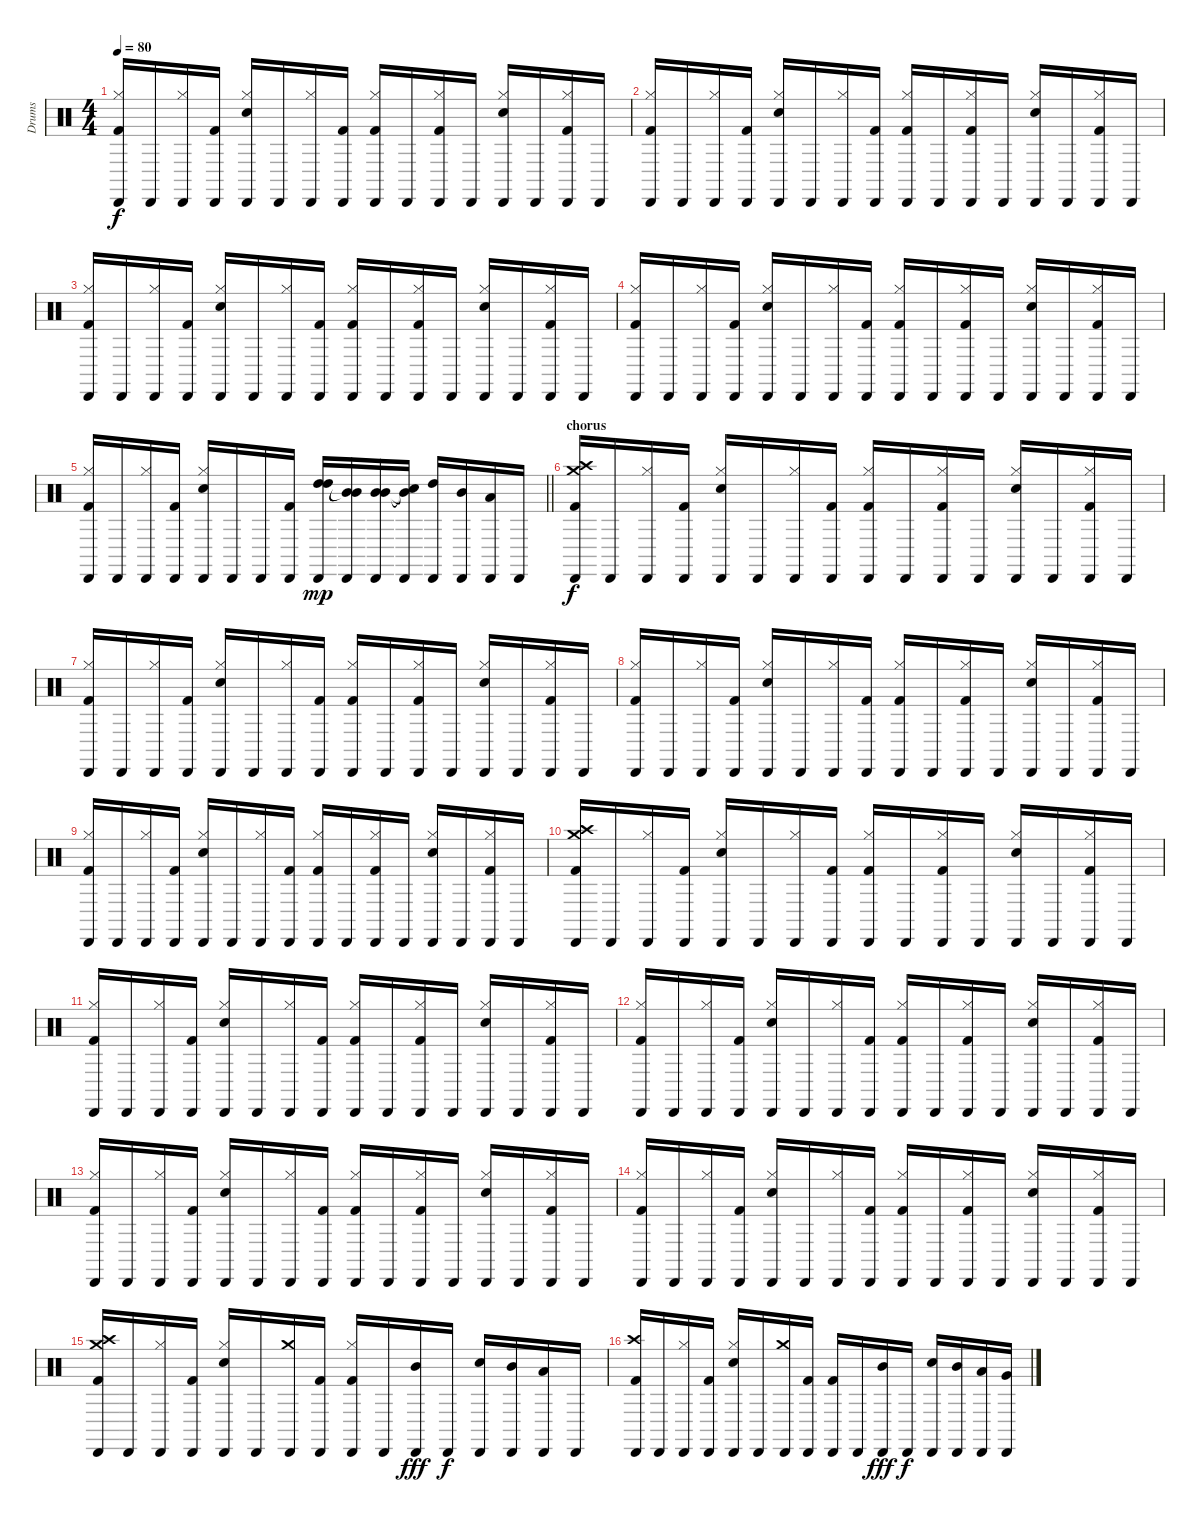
\track ("Drums" "Drums") {instrument percussion}
\staff {score}
\articulation defaults
\ts (4 4)
\tempo 80
\clef neutral
\ks c
("Cabasa (hit)" "Hi-Hat (closed)" "Kick (hit) 2").16{dy f} "Cabasa (hit)".16 ("Cabasa (hit)" "Hi-Hat (closed)").16 ("Cabasa (hit)" "Kick (hit) 2").16 ("Cabasa (hit)" "Hi-Hat (closed)" "Electric Snare (hit)").16 "Cabasa (hit)".16 ("Cabasa (hit)" "Hi-Hat (closed)").16 ("Cabasa (hit)" "Kick (hit) 2").16 ("Cabasa (hit)" "Hi-Hat (closed)" "Kick (hit) 2").16 "Cabasa (hit)".16 ("Cabasa (hit)" "Hi-Hat (closed)" "Kick (hit) 2").16 "Cabasa (hit)".16 ("Cabasa (hit)" "Hi-Hat (closed)" "Electric Snare (hit)").16 "Cabasa (hit)".16 ("Cabasa (hit)" "Hi-Hat (closed)" "Kick (hit) 2").16 "Cabasa (hit)".16 |
("Cabasa (hit)" "Hi-Hat (closed)" "Kick (hit) 2").16 "Cabasa (hit)".16 ("Cabasa (hit)" "Hi-Hat (closed)").16 ("Cabasa (hit)" "Kick (hit) 2").16 ("Cabasa (hit)" "Hi-Hat (closed)" "Electric Snare (hit)").16 "Cabasa (hit)".16 ("Cabasa (hit)" "Hi-Hat (closed)").16 ("Cabasa (hit)" "Kick (hit) 2").16 ("Cabasa (hit)" "Hi-Hat (closed)" "Kick (hit) 2").16 "Cabasa (hit)".16 ("Cabasa (hit)" "Hi-Hat (closed)" "Kick (hit) 2").16 "Cabasa (hit)".16 ("Cabasa (hit)" "Hi-Hat (closed)" "Electric Snare (hit)").16 "Cabasa (hit)".16 ("Cabasa (hit)" "Hi-Hat (closed)" "Kick (hit) 2").16 "Cabasa (hit)".16 |
("Cabasa (hit)" "Hi-Hat (closed)" "Kick (hit) 2").16 "Cabasa (hit)".16 ("Cabasa (hit)" "Hi-Hat (closed)").16 ("Cabasa (hit)" "Kick (hit) 2").16 ("Cabasa (hit)" "Hi-Hat (closed)" "Electric Snare (hit)").16 "Cabasa (hit)".16 ("Cabasa (hit)" "Hi-Hat (closed)").16 ("Cabasa (hit)" "Kick (hit) 2").16 ("Cabasa (hit)" "Hi-Hat (closed)" "Kick (hit) 2").16 "Cabasa (hit)".16 ("Cabasa (hit)" "Hi-Hat (closed)" "Kick (hit) 2").16 "Cabasa (hit)".16 ("Cabasa (hit)" "Hi-Hat (closed)" "Electric Snare (hit)").16 "Cabasa (hit)".16 ("Cabasa (hit)" "Hi-Hat (closed)" "Kick (hit) 2").16 "Cabasa (hit)".16 |
("Cabasa (hit)" "Hi-Hat (closed)" "Kick (hit) 2").16 "Cabasa (hit)".16 ("Cabasa (hit)" "Hi-Hat (closed)").16 ("Cabasa (hit)" "Kick (hit) 2").16 ("Cabasa (hit)" "Hi-Hat (closed)" "Electric Snare (hit)").16 "Cabasa (hit)".16 ("Cabasa (hit)" "Hi-Hat (closed)").16 ("Cabasa (hit)" "Kick (hit) 2").16 ("Cabasa (hit)" "Hi-Hat (closed)" "Kick (hit) 2").16 "Cabasa (hit)".16 ("Cabasa (hit)" "Hi-Hat (closed)" "Kick (hit) 2").16 "Cabasa (hit)".16 ("Cabasa (hit)" "Hi-Hat (closed)" "Electric Snare (hit)").16 "Cabasa (hit)".16 ("Cabasa (hit)" "Hi-Hat (closed)" "Kick (hit) 2").16 "Cabasa (hit)".16 |
\barLineRight lightlight
("Cabasa (hit)" "Kick (hit) 2" "Hi-Hat (closed)").16 "Cabasa (hit)".16 ("Cabasa (hit)" "Hi-Hat (closed)").16 ("Cabasa (hit)" "Kick (hit) 2").16 ("Cabasa (hit)" "Electric Snare (hit)" "Hi-Hat (closed)").16 "Cabasa (hit)".16 "Cabasa (hit)".16 ("Cabasa (hit)" "Kick (hit) 2").16 ("High Tom (hit)" "High Tom (hit)" "Cabasa (hit)").16{dy mp} ("Mid Tom (hit)"{t} "Mid Tom (hit)"{t} "Cabasa (hit)").16 ("Mid Tom (hit)" "Mid Tom (hit)" "Cabasa (hit)").16 ("Mid Tom (hit)"{t} "Snare (hit)"{t} "Cabasa (hit)").16 ("High Tom (hit)" "Cabasa (hit)").16 ("Mid Tom (hit)" "Cabasa (hit)").16 ("Low Tom (hit)" "Cabasa (hit)").16 "Cabasa (hit)".16 |
\section ("" "chorus")
("Cabasa (hit)" "Crash high (hit)" "Kick (hit) 2" "Crash medium (hit)").16{dy f} "Cabasa (hit)".16 ("Cabasa (hit)" "Hi-Hat (closed)").16 ("Cabasa (hit)" "Kick (hit) 2").16 ("Cabasa (hit)" "Hi-Hat (closed)" "Electric Snare (hit)").16 "Cabasa (hit)".16 ("Cabasa (hit)" "Hi-Hat (closed)").16 ("Cabasa (hit)" "Kick (hit) 2").16 ("Cabasa (hit)" "Hi-Hat (closed)" "Kick (hit) 2").16 "Cabasa (hit)".16 ("Cabasa (hit)" "Hi-Hat (closed)" "Kick (hit) 2").16 "Cabasa (hit)".16 ("Cabasa (hit)" "Hi-Hat (closed)" "Electric Snare (hit)").16 "Cabasa (hit)".16 ("Cabasa (hit)" "Hi-Hat (closed)" "Kick (hit) 2").16 "Cabasa (hit)".16 |
("Cabasa (hit)" "Hi-Hat (closed)" "Kick (hit) 2").16 "Cabasa (hit)".16 ("Cabasa (hit)" "Hi-Hat (closed)").16 ("Cabasa (hit)" "Kick (hit) 2").16 ("Cabasa (hit)" "Hi-Hat (closed)" "Electric Snare (hit)").16 "Cabasa (hit)".16 ("Cabasa (hit)" "Hi-Hat (closed)").16 ("Cabasa (hit)" "Kick (hit) 2").16 ("Cabasa (hit)" "Hi-Hat (closed)" "Kick (hit) 2").16 "Cabasa (hit)".16 ("Cabasa (hit)" "Hi-Hat (closed)" "Kick (hit) 2").16 "Cabasa (hit)".16 ("Cabasa (hit)" "Hi-Hat (closed)" "Electric Snare (hit)").16 "Cabasa (hit)".16 ("Cabasa (hit)" "Hi-Hat (closed)" "Kick (hit) 2").16 "Cabasa (hit)".16 |
("Cabasa (hit)" "Hi-Hat (closed)" "Kick (hit) 2").16 "Cabasa (hit)".16 ("Cabasa (hit)" "Hi-Hat (closed)").16 ("Cabasa (hit)" "Kick (hit) 2").16 ("Cabasa (hit)" "Hi-Hat (closed)" "Electric Snare (hit)").16 "Cabasa (hit)".16 ("Cabasa (hit)" "Hi-Hat (closed)").16 ("Cabasa (hit)" "Kick (hit) 2").16 ("Cabasa (hit)" "Hi-Hat (closed)" "Kick (hit) 2").16 "Cabasa (hit)".16 ("Cabasa (hit)" "Hi-Hat (closed)" "Kick (hit) 2").16 "Cabasa (hit)".16 ("Cabasa (hit)" "Hi-Hat (closed)" "Electric Snare (hit)").16 "Cabasa (hit)".16 ("Cabasa (hit)" "Hi-Hat (closed)" "Kick (hit) 2").16 "Cabasa (hit)".16 |
("Cabasa (hit)" "Hi-Hat (closed)" "Kick (hit) 2").16 "Cabasa (hit)".16 ("Cabasa (hit)" "Hi-Hat (closed)").16 ("Cabasa (hit)" "Kick (hit) 2").16 ("Cabasa (hit)" "Hi-Hat (closed)" "Electric Snare (hit)").16 "Cabasa (hit)".16 ("Cabasa (hit)" "Hi-Hat (closed)").16 ("Cabasa (hit)" "Kick (hit) 2").16 ("Cabasa (hit)" "Hi-Hat (closed)" "Kick (hit) 2").16 "Cabasa (hit)".16 ("Cabasa (hit)" "Hi-Hat (closed)" "Kick (hit) 2").16 "Cabasa (hit)".16 ("Cabasa (hit)" "Hi-Hat (closed)" "Electric Snare (hit)").16 "Cabasa (hit)".16 ("Cabasa (hit)" "Hi-Hat (closed)" "Kick (hit) 2").16 "Cabasa (hit)".16 |
("Cabasa (hit)" "Crash medium (hit)" "Kick (hit) 2" "Crash high (hit)").16 "Cabasa (hit)".16 ("Cabasa (hit)" "Hi-Hat (closed)").16 ("Cabasa (hit)" "Kick (hit) 2").16 ("Cabasa (hit)" "Hi-Hat (closed)" "Electric Snare (hit)").16 "Cabasa (hit)".16 ("Cabasa (hit)" "Hi-Hat (closed)").16 ("Cabasa (hit)" "Kick (hit) 2").16 ("Cabasa (hit)" "Hi-Hat (closed)" "Kick (hit) 2").16 "Cabasa (hit)".16 ("Cabasa (hit)" "Hi-Hat (closed)" "Kick (hit) 2").16 "Cabasa (hit)".16 ("Cabasa (hit)" "Hi-Hat (closed)" "Electric Snare (hit)").16 "Cabasa (hit)".16 ("Cabasa (hit)" "Hi-Hat (closed)" "Kick (hit) 2").16 "Cabasa (hit)".16 |
("Cabasa (hit)" "Hi-Hat (closed)" "Kick (hit) 2").16 "Cabasa (hit)".16 ("Cabasa (hit)" "Hi-Hat (closed)").16 ("Cabasa (hit)" "Kick (hit) 2").16 ("Cabasa (hit)" "Hi-Hat (closed)" "Electric Snare (hit)").16 "Cabasa (hit)".16 ("Cabasa (hit)" "Hi-Hat (closed)").16 ("Cabasa (hit)" "Kick (hit) 2").16 ("Cabasa (hit)" "Hi-Hat (closed)" "Kick (hit) 2").16 "Cabasa (hit)".16 ("Cabasa (hit)" "Hi-Hat (closed)" "Kick (hit) 2").16 "Cabasa (hit)".16 ("Cabasa (hit)" "Hi-Hat (closed)" "Electric Snare (hit)").16 "Cabasa (hit)".16 ("Cabasa (hit)" "Hi-Hat (closed)" "Kick (hit) 2").16 "Cabasa (hit)".16 |
("Cabasa (hit)" "Hi-Hat (closed)" "Kick (hit) 2").16 "Cabasa (hit)".16 ("Cabasa (hit)" "Hi-Hat (closed)").16 ("Cabasa (hit)" "Kick (hit) 2").16 ("Cabasa (hit)" "Hi-Hat (closed)" "Electric Snare (hit)").16 "Cabasa (hit)".16 ("Cabasa (hit)" "Hi-Hat (closed)").16 ("Cabasa (hit)" "Kick (hit) 2").16 ("Cabasa (hit)" "Hi-Hat (closed)" "Kick (hit) 2").16 "Cabasa (hit)".16 ("Cabasa (hit)" "Hi-Hat (closed)" "Kick (hit) 2").16 "Cabasa (hit)".16 ("Cabasa (hit)" "Hi-Hat (closed)" "Electric Snare (hit)").16 "Cabasa (hit)".16 ("Cabasa (hit)" "Hi-Hat (closed)" "Kick (hit) 2").16 "Cabasa (hit)".16 |
("Cabasa (hit)" "Hi-Hat (closed)" "Kick (hit) 2").16 "Cabasa (hit)".16 ("Cabasa (hit)" "Hi-Hat (closed)").16 ("Cabasa (hit)" "Kick (hit) 2").16 ("Cabasa (hit)" "Hi-Hat (closed)" "Electric Snare (hit)").16 "Cabasa (hit)".16 ("Cabasa (hit)" "Hi-Hat (closed)").16 ("Cabasa (hit)" "Kick (hit) 2").16 ("Cabasa (hit)" "Hi-Hat (closed)" "Kick (hit) 2").16 "Cabasa (hit)".16 ("Cabasa (hit)" "Hi-Hat (closed)" "Kick (hit) 2").16 "Cabasa (hit)".16 ("Cabasa (hit)" "Hi-Hat (closed)" "Electric Snare (hit)").16 "Cabasa (hit)".16 ("Cabasa (hit)" "Hi-Hat (closed)" "Kick (hit) 2").16 "Cabasa (hit)".16 |
("Cabasa (hit)" "Hi-Hat (closed)" "Kick (hit) 2").16 "Cabasa (hit)".16 ("Cabasa (hit)" "Hi-Hat (closed)").16 ("Cabasa (hit)" "Kick (hit) 2").16 ("Cabasa (hit)" "Hi-Hat (closed)" "Electric Snare (hit)").16 "Cabasa (hit)".16 ("Cabasa (hit)" "Hi-Hat (closed)").16 ("Cabasa (hit)" "Kick (hit) 2").16 ("Cabasa (hit)" "Hi-Hat (closed)" "Kick (hit) 2").16 "Cabasa (hit)".16 ("Cabasa (hit)" "Hi-Hat (closed)" "Kick (hit) 2").16 "Cabasa (hit)".16 ("Cabasa (hit)" "Hi-Hat (closed)" "Electric Snare (hit)").16 "Cabasa (hit)".16 ("Cabasa (hit)" "Hi-Hat (closed)" "Kick (hit) 2").16 "Cabasa (hit)".16 |
("Cabasa (hit)" "Crash medium (hit)" "Kick (hit) 2" "Crash high (hit)").16 "Cabasa (hit)".16 ("Cabasa (hit)" "Hi-Hat (closed)").16 ("Cabasa (hit)" "Kick (hit) 2").16 ("Cabasa (hit)" "Hi-Hat (closed)" "Electric Snare (hit)").16 "Cabasa (hit)".16 ("Cabasa (hit)" "Crash medium (hit)").16 ("Cabasa (hit)" "Kick (hit) 2").16 ("Cabasa (hit)" "Hi-Hat (closed)" "Kick (hit) 2").16 "Cabasa (hit)".16 ("Cabasa (hit)" "Mid Tom (hit)").16{dy fff} "Cabasa (hit)".16{dy f} ("Cabasa (hit)" "Electric Snare (hit)").16 ("Cabasa (hit)" "Mid Tom (hit)").16 ("Cabasa (hit)" "Low Tom (hit)").16 "Cabasa (hit)".16 |
("Cabasa (hit)" "Kick (hit) 2" "Crash high (hit)").16 "Cabasa (hit)".16 ("Cabasa (hit)" "Hi-Hat (closed)").16 ("Cabasa (hit)" "Kick (hit) 2").16 ("Cabasa (hit)" "Electric Snare (hit)" "Hi-Hat (closed)").16 "Cabasa (hit)".16 ("Cabasa (hit)" "Crash medium (hit)").16 ("Cabasa (hit)" "Kick (hit) 2").16 ("Cabasa (hit)" "Kick (hit) 2").16 "Cabasa (hit)".16 ("Cabasa (hit)" "Mid Tom (hit)").16{dy fff} "Cabasa (hit)".16{dy f} ("Cabasa (hit)" "Electric Snare (hit)").16 ("Cabasa (hit)" "Mid Tom (hit)").16 ("Cabasa (hit)" "Low Tom (hit)").16 ("Cabasa (hit)" "Very Low Tom (hit)").16
